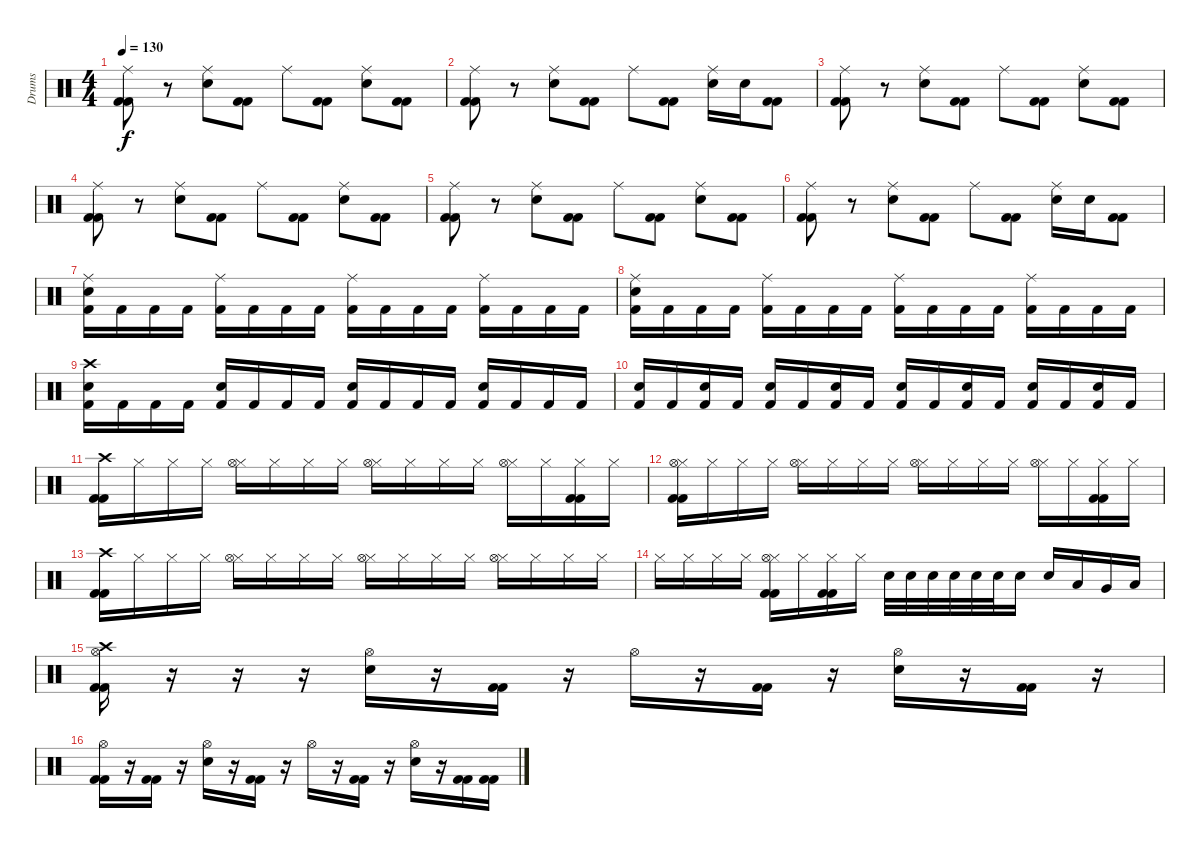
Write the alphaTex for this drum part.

\track ("Drums" "Drums") {instrument percussion}
\staff {score}
\articulation defaults
\ts (4 4)
\tempo 130
\clef neutral
\ks c
("Ride (middle)" "Kick (hit) 2" "Kick (hit) 2").8{dy f} r.8 ("Ride (middle)" "Electric Snare (hit)").8 ("Kick (hit) 2" "Kick (hit) 2").8 "Ride (middle)".8 ("Kick (hit) 2" "Kick (hit) 2").8 ("Ride (middle)" "Electric Snare (hit)").8 ("Kick (hit) 2" "Kick (hit) 2").8 |
("Ride (middle)" "Kick (hit) 2" "Kick (hit) 2").8 r.8 ("Ride (middle)" "Electric Snare (hit)").8 ("Kick (hit) 2" "Kick (hit) 2").8 "Ride (middle)".8 ("Kick (hit) 2" "Kick (hit) 2").8 ("Ride (middle)" "Electric Snare (hit)").16 "Electric Snare (hit)".16 ("Kick (hit) 2" "Kick (hit) 2").8 |
("Ride (middle)" "Kick (hit) 2" "Kick (hit) 2").8 r.8 ("Ride (middle)" "Electric Snare (hit)").8 ("Kick (hit) 2" "Kick (hit) 2").8 "Ride (middle)".8 ("Kick (hit) 2" "Kick (hit) 2").8 ("Ride (middle)" "Electric Snare (hit)").8 ("Kick (hit) 2" "Kick (hit) 2").8 |
("Ride (middle)" "Kick (hit) 2" "Kick (hit) 2").8 r.8 ("Ride (middle)" "Electric Snare (hit)").8 ("Kick (hit) 2" "Kick (hit) 2").8 "Ride (middle)".8 ("Kick (hit) 2" "Kick (hit) 2").8 ("Ride (middle)" "Electric Snare (hit)").8 ("Kick (hit) 2" "Kick (hit) 2").8 |
("Ride (middle)" "Kick (hit) 2" "Kick (hit) 2").8 r.8 ("Ride (middle)" "Electric Snare (hit)").8 ("Kick (hit) 2" "Kick (hit) 2").8 "Ride (middle)".8 ("Kick (hit) 2" "Kick (hit) 2").8 ("Ride (middle)" "Electric Snare (hit)").8 ("Kick (hit) 2" "Kick (hit) 2").8 |
("Ride (middle)" "Kick (hit) 2" "Kick (hit) 2").8 r.8 ("Ride (middle)" "Electric Snare (hit)").8 ("Kick (hit) 2" "Kick (hit) 2").8 "Ride (middle)".8 ("Kick (hit) 2" "Kick (hit) 2").8 ("Ride (middle)" "Electric Snare (hit)").16 "Electric Snare (hit)".16 ("Kick (hit) 2" "Kick (hit) 2").8 |
("Ride (middle)" "Electric Snare (hit)" "Kick (hit) 2").16 "Kick (hit) 2".16 "Kick (hit) 2".16 "Kick (hit) 2".16 ("Ride (middle)" "Kick (hit) 2").16 "Kick (hit) 2".16 "Kick (hit) 2".16 "Kick (hit) 2".16 ("Ride (middle)" "Kick (hit) 2").16 "Kick (hit) 2".16 "Kick (hit) 2".16 "Kick (hit) 2".16 ("Ride (middle)" "Kick (hit) 2").16 "Kick (hit) 2".16 "Kick (hit) 2".16 "Kick (hit) 2".16 |
("Ride (middle)" "Electric Snare (hit)" "Kick (hit) 2").16 "Kick (hit) 2".16 "Kick (hit) 2".16 "Kick (hit) 2".16 ("Ride (middle)" "Kick (hit) 2").16 "Kick (hit) 2".16 "Kick (hit) 2".16 "Kick (hit) 2".16 ("Ride (middle)" "Kick (hit) 2").16 "Kick (hit) 2".16 "Kick (hit) 2".16 "Kick (hit) 2".16 ("Ride (middle)" "Kick (hit) 2").16 "Kick (hit) 2".16 "Kick (hit) 2".16 "Kick (hit) 2".16 |
("Crash high (hit)" "Electric Snare (hit)" "Kick (hit) 2").16 "Kick (hit) 2".16 "Kick (hit) 2".16 "Kick (hit) 2".16 ("Electric Snare (hit)" "Kick (hit) 2").16 "Kick (hit) 2".16 "Kick (hit) 2".16 "Kick (hit) 2".16 ("Electric Snare (hit)" "Kick (hit) 2").16 "Kick (hit) 2".16 "Kick (hit) 2".16 "Kick (hit) 2".16 ("Electric Snare (hit)" "Kick (hit) 2").16 "Kick (hit) 2".16 "Kick (hit) 2".16 "Kick (hit) 2".16 |
("Electric Snare (hit)" "Kick (hit) 2").16 "Kick (hit) 2".16 ("Electric Snare (hit)" "Kick (hit) 2").16 "Kick (hit) 2".16 ("Electric Snare (hit)" "Kick (hit) 2").16 "Kick (hit) 2".16 ("Electric Snare (hit)" "Kick (hit) 2").16 "Kick (hit) 2".16 ("Electric Snare (hit)" "Kick (hit) 2").16 "Kick (hit) 2".16 ("Electric Snare (hit)" "Kick (hit) 2").16 "Kick (hit) 2".16 ("Electric Snare (hit)" "Kick (hit) 2").16 "Kick (hit) 2".16 ("Electric Snare (hit)" "Kick (hit) 2").16 "Kick (hit) 2".16 |
("Crash high (hit)" "Kick (hit) 2" "Kick (hit) 2").16 "Hi-Hat (closed)".16 "Hi-Hat (closed)".16 "Hi-Hat (closed)".16 ("Hi-Hat (closed)" "Hi-Hat (open)").16 "Hi-Hat (closed)".16 "Hi-Hat (closed)".16 "Hi-Hat (closed)".16 ("Hi-Hat (closed)" "Hi-Hat (open)").16 "Hi-Hat (closed)".16 "Hi-Hat (closed)".16 "Hi-Hat (closed)".16 ("Hi-Hat (closed)" "Hi-Hat (open)").16 "Hi-Hat (closed)".16 ("Hi-Hat (closed)" "Kick (hit) 2" "Kick (hit) 2").16 "Hi-Hat (closed)".16 |
("Hi-Hat (closed)" "Hi-Hat (open)" "Kick (hit) 2" "Kick (hit) 2").16 "Hi-Hat (closed)".16 "Hi-Hat (closed)".16 "Hi-Hat (closed)".16 ("Hi-Hat (closed)" "Hi-Hat (open)").16 "Hi-Hat (closed)".16 "Hi-Hat (closed)".16 "Hi-Hat (closed)".16 ("Hi-Hat (closed)" "Hi-Hat (open)").16 "Hi-Hat (closed)".16 "Hi-Hat (closed)".16 "Hi-Hat (closed)".16 ("Hi-Hat (closed)" "Hi-Hat (open)").16 "Hi-Hat (closed)".16 ("Hi-Hat (closed)" "Kick (hit) 2" "Kick (hit) 2").16 "Hi-Hat (closed)".16 |
("Crash high (hit)" "Kick (hit) 2" "Kick (hit) 2").16 "Hi-Hat (closed)".16 "Hi-Hat (closed)".16 "Hi-Hat (closed)".16 ("Hi-Hat (closed)" "Hi-Hat (open)").16 "Hi-Hat (closed)".16 "Hi-Hat (closed)".16 "Hi-Hat (closed)".16 ("Hi-Hat (closed)" "Hi-Hat (open)").16 "Hi-Hat (closed)".16 "Hi-Hat (closed)".16 "Hi-Hat (closed)".16 ("Hi-Hat (closed)" "Hi-Hat (open)").16 "Hi-Hat (closed)".16 "Hi-Hat (closed)".16 "Hi-Hat (closed)".16 |
"Hi-Hat (closed)".16 "Hi-Hat (closed)".16 "Hi-Hat (closed)".16 "Hi-Hat (closed)".16 ("Hi-Hat (closed)" "Hi-Hat (open)" "Kick (hit) 2" "Kick (hit) 2").16 "Hi-Hat (closed)".16 ("Hi-Hat (closed)" "Kick (hit) 2" "Kick (hit) 2").16 "Hi-Hat (closed)".16 "Electric Snare (hit)".32 "Electric Snare (hit)".32 "Electric Snare (hit)".32 "Electric Snare (hit)".32 "Electric Snare (hit)".32 "Electric Snare (hit)".32 "Electric Snare (hit)".16 "Electric Snare (hit)".16 "Low Tom (hit)".16 "Very Low Tom (hit)".16 "Low Floor Tom (hit)".16 |
("Crash high (hit)" "Hi-Hat (open)" "Kick (hit) 2" "Kick (hit) 2").16 r.16 r.16 r.16 ("Hi-Hat (open)" "Electric Snare (hit)").16 r.16 ("Kick (hit) 2" "Kick (hit) 2").16 r.16 "Hi-Hat (open)".16 r.16 ("Kick (hit) 2" "Kick (hit) 2").16 r.16 ("Hi-Hat (open)" "Electric Snare (hit)").16 r.16 ("Kick (hit) 2" "Kick (hit) 2").16 r.16 |
("Hi-Hat (open)" "Kick (hit) 2" "Kick (hit) 2").16 r.16 ("Kick (hit) 2" "Kick (hit) 2").16 r.16 ("Hi-Hat (open)" "Electric Snare (hit)").16 r.16 ("Kick (hit) 2" "Kick (hit) 2").16 r.16 "Hi-Hat (open)".16 r.16 ("Kick (hit) 2" "Kick (hit) 2").16 r.16 ("Hi-Hat (open)" "Electric Snare (hit)").16 r.16 ("Kick (hit) 2" "Kick (hit) 2").16 ("Kick (hit) 2" "Kick (hit) 2").16
